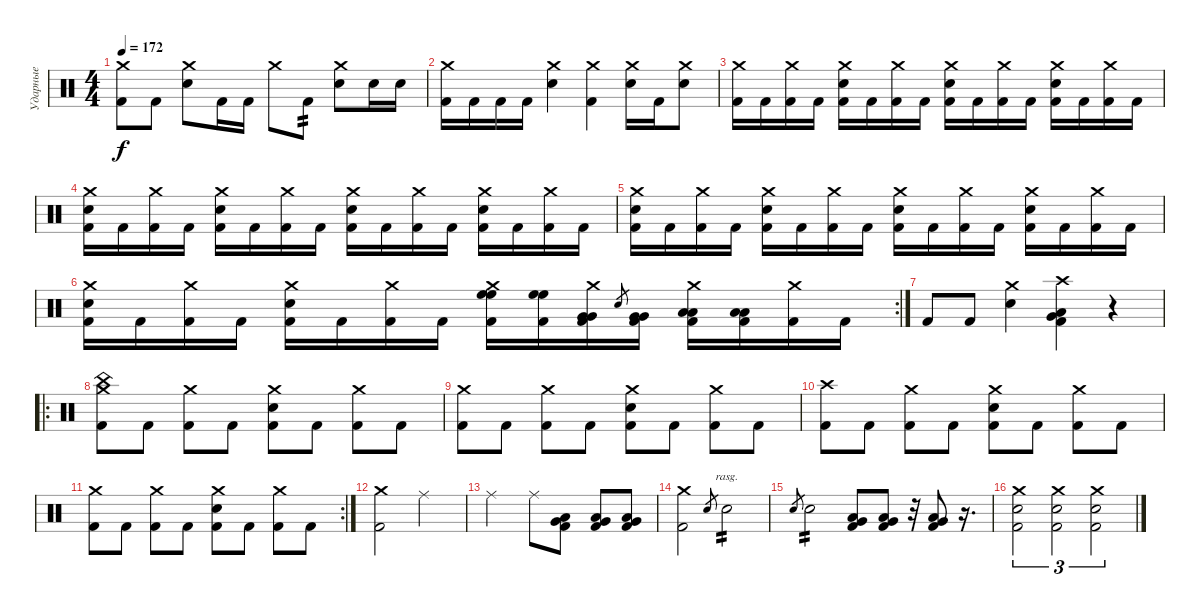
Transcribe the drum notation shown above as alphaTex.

\track ("Ударные" "Ударные") {instrument percussion}
\staff {score}
\articulation defaults
\ts (4 4)
\tempo 172
\clef neutral
\ks c
("Crash medium (hit)" "Kick (hit) 2").8{dy f} "Kick (hit) 2".8 ("Crash medium (hit)" "Electric Snare (hit)").8 "Kick (hit) 2".16 "Kick (hit) 2".16 "Crash medium (hit)".8 "Kick (hit) 2".8{tp 2} ("Crash medium (hit)" "Electric Snare (hit)").8 "Electric Snare (hit)".16 "Electric Snare (hit)".16 |
("Crash medium (hit)" "Kick (hit) 2").16 "Kick (hit) 2".16 "Kick (hit) 2".16 "Kick (hit) 2".16 ("Crash medium (hit)" "Electric Snare (hit)").4 ("Crash medium (hit)" "Kick (hit) 2").4 ("Crash medium (hit)" "Electric Snare (hit)").16 "Kick (hit) 2".16 ("Crash medium (hit)" "Electric Snare (hit)").8 |
("Crash medium (hit)" "Kick (hit) 2").16 "Kick (hit) 2".16 ("Crash medium (hit)" "Kick (hit) 2").16 "Kick (hit) 2".16 ("Crash medium (hit)" "Electric Snare (hit)" "Kick (hit) 2").16 "Kick (hit) 2".16 ("Crash medium (hit)" "Kick (hit) 2").16 "Kick (hit) 2".16 ("Crash medium (hit)" "Electric Snare (hit)" "Kick (hit) 2").16 "Kick (hit) 2".16 ("Crash medium (hit)" "Kick (hit) 2").16 "Kick (hit) 2".16 ("Crash medium (hit)" "Electric Snare (hit)" "Kick (hit) 2").16 "Kick (hit) 2".16 ("Crash medium (hit)" "Kick (hit) 2").16 "Kick (hit) 2".16 |
("Crash medium (hit)" "Electric Snare (hit)" "Kick (hit) 2").16 "Kick (hit) 2".16 ("Crash medium (hit)" "Kick (hit) 2").16 "Kick (hit) 2".16 ("Crash medium (hit)" "Electric Snare (hit)" "Kick (hit) 2").16 "Kick (hit) 2".16 ("Crash medium (hit)" "Kick (hit) 2").16 "Kick (hit) 2".16 ("Crash medium (hit)" "Electric Snare (hit)" "Kick (hit) 2").16 "Kick (hit) 2".16 ("Crash medium (hit)" "Kick (hit) 2").16 "Kick (hit) 2".16 ("Crash medium (hit)" "Electric Snare (hit)" "Kick (hit) 2").16 "Kick (hit) 2".16 ("Crash medium (hit)" "Kick (hit) 2").16 "Kick (hit) 2".16 |
("Crash medium (hit)" "Electric Snare (hit)" "Kick (hit) 2").16 "Kick (hit) 2".16 ("Crash medium (hit)" "Kick (hit) 2").16 "Kick (hit) 2".16 ("Crash medium (hit)" "Electric Snare (hit)" "Kick (hit) 2").16 "Kick (hit) 2".16 ("Crash medium (hit)" "Kick (hit) 2").16 "Kick (hit) 2".16 ("Crash medium (hit)" "Electric Snare (hit)" "Kick (hit) 2").16 "Kick (hit) 2".16 ("Crash medium (hit)" "Kick (hit) 2").16 "Kick (hit) 2".16 ("Crash medium (hit)" "Electric Snare (hit)" "Kick (hit) 2").16 "Kick (hit) 2".16 ("Crash medium (hit)" "Kick (hit) 2").16 "Kick (hit) 2".16 |
\rc 2
("Crash medium (hit)" "Electric Snare (hit)" "Kick (hit) 2").16 "Kick (hit) 2".16 ("Crash medium (hit)" "Kick (hit) 2").16 "Kick (hit) 2".16 ("Crash medium (hit)" "Electric Snare (hit)" "Kick (hit) 2").16 "Kick (hit) 2".16 ("Crash medium (hit)" "Kick (hit) 2").16 "Kick (hit) 2".16 ("Crash medium (hit)" "High Floor Tom (hit)" "High Floor Tom (hit)" "Kick (hit) 2").16 ("High Floor Tom (hit)" "High Floor Tom (hit)" "Kick (hit) 2").16 ("Crash medium (hit)" "Very Low Tom (hit)" "Very Low Tom (hit)" "Kick (hit) 2").16 "Electric Snare (hit)".8{gr} ("Very Low Tom (hit)" "Very Low Tom (hit)" "Kick (hit) 2").16 ("Crash medium (hit)" "Low Tom (hit)" "Low Tom (hit)" "Kick (hit) 2").16 ("Low Floor Tom (hit)" "Low Floor Tom (hit)" "Kick (hit) 2").16 ("Crash medium (hit)" "Kick (hit) 2").16 "Kick (hit) 2".16 |
"Kick (hit) 2".8 "Kick (hit) 2".8 ("Crash medium (hit)" "Electric Snare (hit)").4 ("Kick (hit) 2" "Crash high (hit)" "Low Tom (hit)" "Very Low Tom (hit)").4 r.4 |
\ro
("Crash medium (hit)" "China (hit)" "Kick (hit) 2").8 "Kick (hit) 2".8 ("Crash medium (hit)" "Kick (hit) 2").8 "Kick (hit) 2".8 ("Crash medium (hit)" "Electric Snare (hit)" "Kick (hit) 2").8 "Kick (hit) 2".8 ("Crash medium (hit)" "Kick (hit) 2").8 "Kick (hit) 2".8 |
("Crash medium (hit)" "Kick (hit) 2").8 "Kick (hit) 2".8 ("Crash medium (hit)" "Kick (hit) 2").8 "Kick (hit) 2".8 ("Crash medium (hit)" "Electric Snare (hit)" "Kick (hit) 2").8 "Kick (hit) 2".8 ("Crash medium (hit)" "Kick (hit) 2").8 "Kick (hit) 2".8 |
("Crash high (hit)" "Kick (hit) 2").8 "Kick (hit) 2".8 ("Crash medium (hit)" "Kick (hit) 2").8 "Kick (hit) 2".8 ("Crash medium (hit)" "Electric Snare (hit)" "Kick (hit) 2").8 "Kick (hit) 2".8 ("Crash medium (hit)" "Kick (hit) 2").8 "Kick (hit) 2".8 |
\rc 2
("Crash medium (hit)" "Kick (hit) 2").8 "Kick (hit) 2".8 ("Crash medium (hit)" "Kick (hit) 2").8 "Kick (hit) 2".8 ("Crash medium (hit)" "Electric Snare (hit)" "Kick (hit) 2").8 "Kick (hit) 2".8 ("Crash medium (hit)" "Kick (hit) 2").8 "Kick (hit) 2".8 |
("Crash medium (hit)" "Kick (hit) 2").2 "Ride (middle)".2 |
"Ride (middle)".2 "Ride (middle)".8 ("Low Floor Tom (hit)" "Very Low Tom (hit)" "Kick (hit) 2").8 ("Low Floor Tom (hit)" "Very Low Tom (hit)" "Kick (hit) 2").8 ("Low Floor Tom (hit)" "Very Low Tom (hit)" "Kick (hit) 2").8 |
("Crash medium (hit)" "Kick (hit) 2").2 "Electric Snare (hit)".8{gr} "Electric Snare (hit)".2{bd 60 rasg ii tp 2} |
"Electric Snare (hit)".8{gr} "Electric Snare (hit)".2{tp 2} ("Low Floor Tom (hit)" "Very Low Tom (hit)" "Kick (hit) 2").8 ("Low Floor Tom (hit)" "Very Low Tom (hit)" "Kick (hit) 2").8 r.32 ("Low Floor Tom (hit)" "Very Low Tom (hit)" "Kick (hit) 2").8 r.16{d} |
("Crash medium (hit)" "Electric Snare (hit)" "Kick (hit) 2").2{tu (3 2)} ("Crash medium (hit)" "Electric Snare (hit)" "Kick (hit) 2").2{tu (3 2)} ("Crash medium (hit)" "Electric Snare (hit)" "Kick (hit) 2").2{tu (3 2)}
